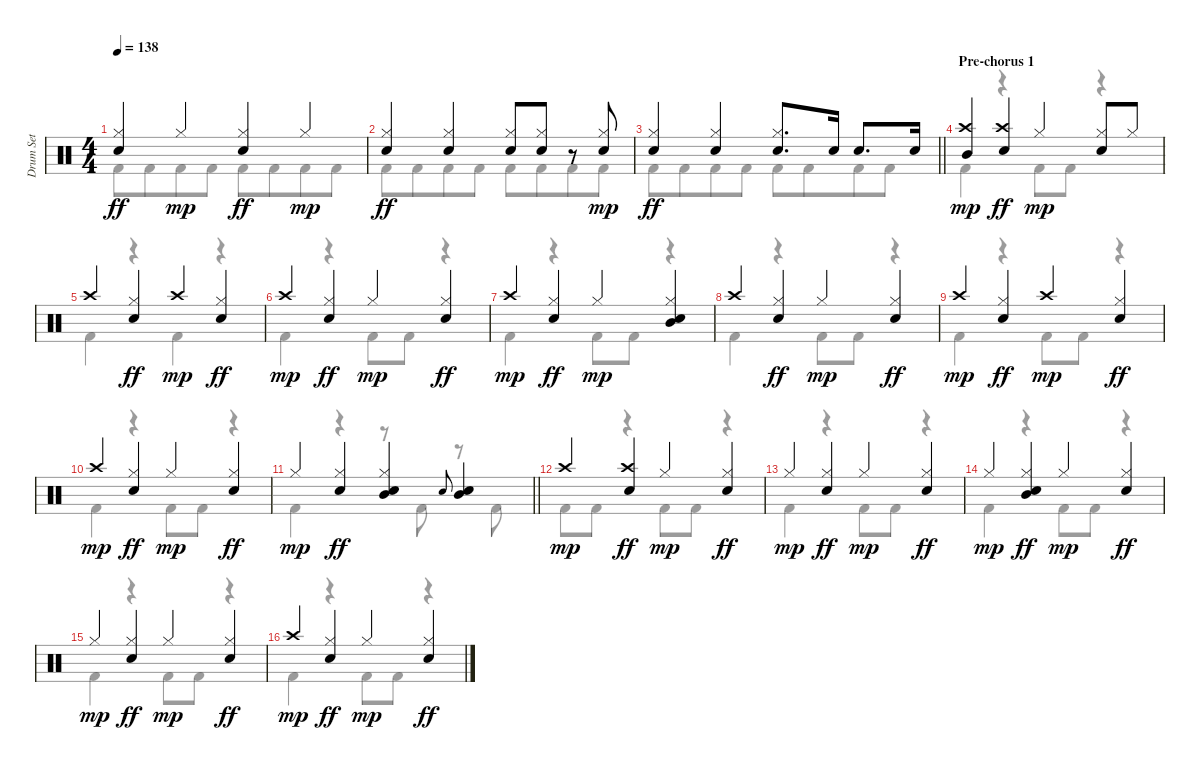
\track ("Drum Set" "Drum Set") {instrument percussion}
\staff {score}
\articulation defaults
\voice
\ts (4 4)
\tempo 138
\clef neutral
\ks c
("Hi-Hat (closed)" "Electric Snare (hit)").4{dy ff} "Hi-Hat (closed)".4{dy mp} ("Hi-Hat (closed)" "Electric Snare (hit)").4{dy ff} "Hi-Hat (closed)".4{dy mp} |
("Hi-Hat (closed)" "Electric Snare (hit)").4{dy ff} ("Hi-Hat (closed)" "Electric Snare (hit)").4 ("Hi-Hat (closed)" "Electric Snare (hit)").8 ("Hi-Hat (closed)" "Electric Snare (hit)").8 r.8 ("Electric Snare (hit)" "Hi-Hat (closed)").8{dy mp} |
\barLineRight lightlight
("Hi-Hat (closed)" "Electric Snare (hit)").4{dy ff} ("Hi-Hat (closed)" "Electric Snare (hit)").4 ("Hi-Hat (closed)" "Electric Snare (hit)").8{d} "Electric Snare (hit)".16 "Electric Snare (hit)".8{d} "Electric Snare (hit)".16 |
\section ("" "Pre-chorus 1")
("Crash high (hit)" "Mid Tom (hit)").4{dy mp} ("Crash high (hit)" "Electric Snare (hit)").4{dy ff} "Hi-Hat (closed)".4{dy mp} ("Electric Snare (hit)" "Hi-Hat (closed)").8 "Hi-Hat (closed)".8 |
"Crash high (hit)".4 ("Hi-Hat (closed)" "Electric Snare (hit)").4{dy ff} "Crash high (hit)".4{dy mp} ("Hi-Hat (closed)" "Electric Snare (hit)").4{dy ff} |
"Crash high (hit)".4{dy mp} ("Hi-Hat (closed)" "Electric Snare (hit)").4{dy ff} "Hi-Hat (closed)".4{dy mp} ("Hi-Hat (closed)" "Electric Snare (hit)").4{dy ff} |
"Crash high (hit)".4{dy mp} ("Hi-Hat (closed)" "Electric Snare (hit)").4{dy ff} "Hi-Hat (closed)".4{dy mp} ("Hi-Hat (closed)" "Electric Snare (hit)" "Mid Tom (hit)").4 |
"Crash high (hit)".4 ("Hi-Hat (closed)" "Electric Snare (hit)").4{dy ff} "Hi-Hat (closed)".4{dy mp} ("Hi-Hat (closed)" "Electric Snare (hit)").4{dy ff} |
"Crash high (hit)".4{dy mp} ("Hi-Hat (closed)" "Electric Snare (hit)").4{dy ff} "Crash high (hit)".4{dy mp} ("Hi-Hat (closed)" "Electric Snare (hit)").4{dy ff} |
"Crash high (hit)".4{dy mp} ("Hi-Hat (closed)" "Electric Snare (hit)").4{dy ff} "Hi-Hat (closed)".4{dy mp} ("Hi-Hat (closed)" "Electric Snare (hit)").4{dy ff} |
\barLineRight lightlight "Hi-Hat (closed)".4{dy mp}
("Hi-Hat (closed)" "Electric Snare (hit)").4{dy ff} ("Hi-Hat (closed)" "Electric Snare (hit)" "Mid Tom (hit)").4 "Electric Snare (hit)".8{gr onbeat} ("Mid Tom (hit)" "Electric Snare (hit)").4 |
"Crash high (hit)".4{dy mp} ("Crash high (hit)" "Electric Snare (hit)").4{dy ff} "Hi-Hat (closed)".4{dy mp} ("Hi-Hat (closed)" "Electric Snare (hit)").4{dy ff} |
"Hi-Hat (closed)".4{dy mp} ("Hi-Hat (closed)" "Electric Snare (hit)").4{dy ff} "Hi-Hat (closed)".4{dy mp} ("Hi-Hat (closed)" "Electric Snare (hit)").4{dy ff} |
"Hi-Hat (closed)".4{dy mp} ("Hi-Hat (closed)" "Electric Snare (hit)" "Mid Tom (hit)").4{dy ff} "Hi-Hat (closed)".4{dy mp} ("Hi-Hat (closed)" "Electric Snare (hit)").4{dy ff} |
"Hi-Hat (closed)".4{dy mp} ("Hi-Hat (closed)" "Electric Snare (hit)").4{dy ff} "Hi-Hat (closed)".4{dy mp} ("Hi-Hat (closed)" "Electric Snare (hit)").4{dy ff} |
"Crash high (hit)".4{dy mp} ("Hi-Hat (closed)" "Electric Snare (hit)").4{dy ff} "Hi-Hat (closed)".4{dy mp} ("Hi-Hat (closed)" "Electric Snare (hit)").4{dy ff}
\voice
\clef neutral
\ottava regular
\simile none
\ks c "Kick (hit) 2".8{dy ff} "Kick (hit) 2".8{beam merge} "Kick (hit) 2".8 "Kick (hit) 2".8 "Kick (hit) 2".8 "Kick (hit) 2".8{beam merge} "Kick (hit) 2".8 "Kick (hit) 2".8
|
"Kick (hit) 2".8 "Kick (hit) 2".8{beam merge} "Kick (hit) 2".8 "Kick (hit) 2".8 "Kick (hit) 2".8 "Kick (hit) 2".8{beam merge} "Kick (hit) 2".8 "Kick (hit) 2".8 |
\barLineRight lightlight "Kick (hit) 2".8 "Kick (hit) 2".8{beam merge} "Kick (hit) 2".8 "Kick (hit) 2".8 "Kick (hit) 2".8 "Kick (hit) 2".8{beam merge} "Kick (hit) 2".8 "Kick (hit) 2".8
|
"Kick (hit) 2".4 r.4 "Kick (hit) 2".8 "Kick (hit) 2".8 r.4 |
"Kick (hit) 2".4 r.4 "Kick (hit) 2".4 r.4 |
"Kick (hit) 2".4 r.4 "Kick (hit) 2".8 "Kick (hit) 2".8 r.4 |
"Kick (hit) 2".4 r.4 "Kick (hit) 2".8 "Kick (hit) 2".8 r.4 |
"Kick (hit) 2".4 r.4 "Kick (hit) 2".8 "Kick (hit) 2".8 r.4 |
"Kick (hit) 2".4 r.4 "Kick (hit) 2".8 "Kick (hit) 2".8 r.4 |
"Kick (hit) 2".4 r.4 "Kick (hit) 2".8 "Kick (hit) 2".8 r.4 |
\barLineRight lightlight "Kick (hit) 2".4
r.4 r.8 "Kick (hit) 2".8 r.8 "Kick (hit) 2".8 |
"Kick (hit) 2".8 "Kick (hit) 2".8 r.4 "Kick (hit) 2".8 "Kick (hit) 2".8 r.4 |
"Kick (hit) 2".4 r.4 "Kick (hit) 2".8 "Kick (hit) 2".8 r.4 |
"Kick (hit) 2".4 r.4 "Kick (hit) 2".8 "Kick (hit) 2".8 r.4 |
"Kick (hit) 2".4 r.4 "Kick (hit) 2".8 "Kick (hit) 2".8 r.4 |
"Kick (hit) 2".4 r.4 "Kick (hit) 2".8 "Kick (hit) 2".8 r.4
